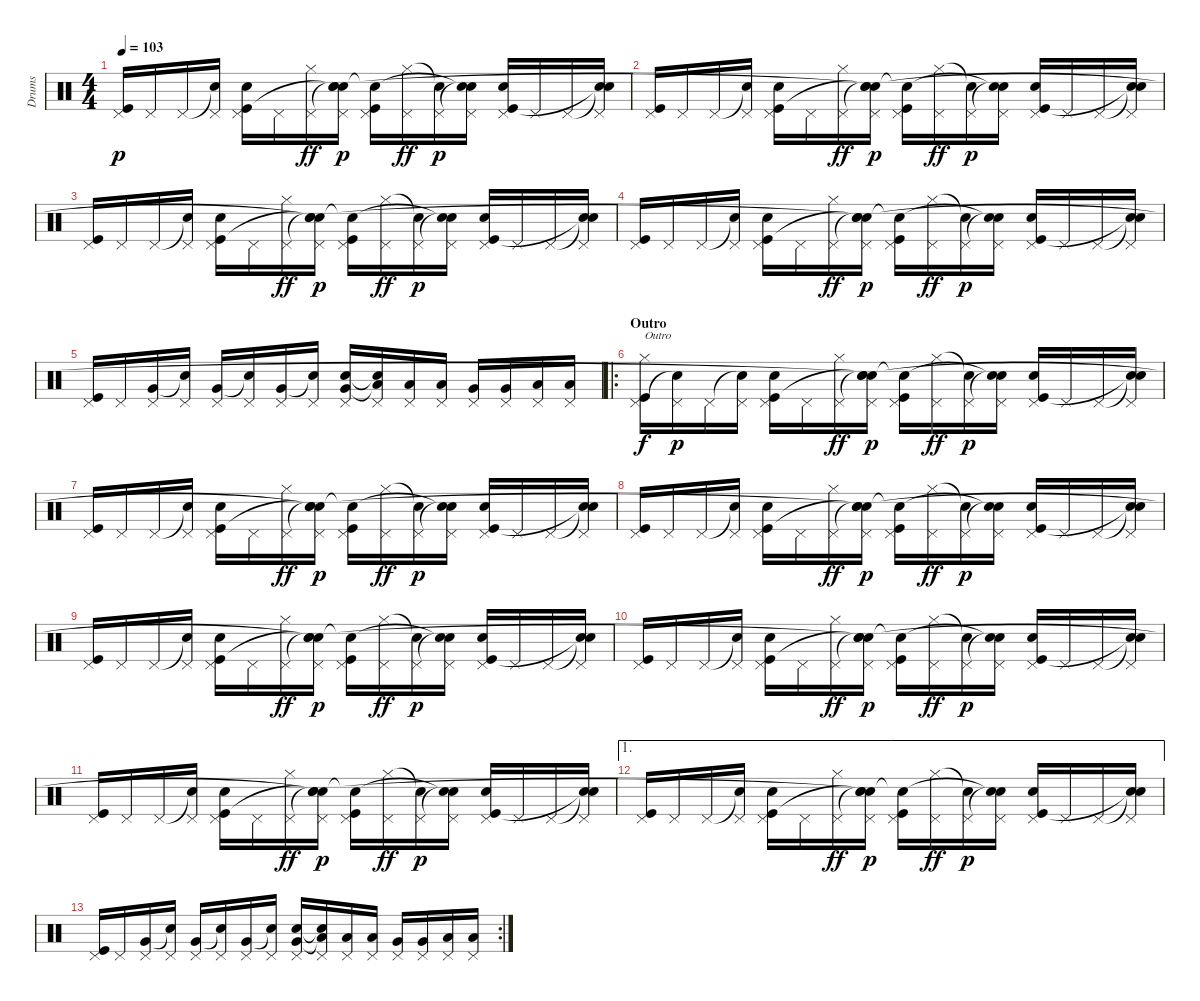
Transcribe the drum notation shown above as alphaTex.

\track ("Drums" "Drums") {instrument percussion}
\staff {score}
\articulation defaults
\ts (4 4)
\tempo 103
\clef neutral
\ks c
("Kick (hit)" "Pedal Hi-Hat (hit)").16{dy p} "Pedal Hi-Hat (hit)".16 "Pedal Hi-Hat (hit)".16 ("Electric Snare (hit)"{t} "Pedal Hi-Hat (hit)").16 ("Electric Snare (hit)" "Pedal Hi-Hat (hit)" "Kick (hit)").16 "Pedal Hi-Hat (hit)".16 ("Pedal Hi-Hat (hit)" "Hi-Hat (closed)").16{dy ff} ("Snare (hit)"{t} "Pedal Hi-Hat (hit)" "Snare (hit)"{t} "Snare (hit)"{t}).16{dy p} ("Kick (hit)" "Pedal Hi-Hat (hit)" "Snare (hit)"{t}).16 ("Pedal Hi-Hat (hit)" "Hi-Hat (closed)").16{dy ff} ("Pedal Hi-Hat (hit)" "Snare (hit)"{t}).16{dy p} ("Snare (hit)"{t} "Pedal Hi-Hat (hit)" "Snare (hit)"{t}).16 ("Electric Snare (hit)" "Pedal Hi-Hat (hit)" "Kick (hit)").16 "Pedal Hi-Hat (hit)".16 "Pedal Hi-Hat (hit)".16 ("Snare (hit)"{t} "Pedal Hi-Hat (hit)" "Snare (hit)"{t}).16 |
("Kick (hit)" "Pedal Hi-Hat (hit)").16 "Pedal Hi-Hat (hit)".16 "Pedal Hi-Hat (hit)".16 ("Electric Snare (hit)"{t} "Pedal Hi-Hat (hit)").16 ("Electric Snare (hit)" "Pedal Hi-Hat (hit)" "Kick (hit)").16 "Pedal Hi-Hat (hit)".16 ("Pedal Hi-Hat (hit)" "Hi-Hat (closed)").16{dy ff} ("Snare (hit)"{t} "Pedal Hi-Hat (hit)" "Snare (hit)"{t} "Snare (hit)"{t}).16{dy p} ("Kick (hit)" "Pedal Hi-Hat (hit)" "Snare (hit)"{t}).16 ("Pedal Hi-Hat (hit)" "Hi-Hat (closed)").16{dy ff} ("Pedal Hi-Hat (hit)" "Snare (hit)"{t}).16{dy p} ("Snare (hit)"{t} "Pedal Hi-Hat (hit)" "Snare (hit)"{t}).16 ("Electric Snare (hit)" "Pedal Hi-Hat (hit)" "Kick (hit)").16 "Pedal Hi-Hat (hit)".16 "Pedal Hi-Hat (hit)".16 ("Snare (hit)"{t} "Pedal Hi-Hat (hit)" "Snare (hit)"{t}).16 |
("Kick (hit)" "Pedal Hi-Hat (hit)").16 "Pedal Hi-Hat (hit)".16 "Pedal Hi-Hat (hit)".16 ("Electric Snare (hit)"{t} "Pedal Hi-Hat (hit)").16 ("Electric Snare (hit)" "Pedal Hi-Hat (hit)" "Kick (hit)").16 "Pedal Hi-Hat (hit)".16 ("Pedal Hi-Hat (hit)" "Hi-Hat (closed)").16{dy ff} ("Snare (hit)"{t} "Pedal Hi-Hat (hit)" "Snare (hit)"{t} "Snare (hit)"{t}).16{dy p} ("Kick (hit)" "Pedal Hi-Hat (hit)" "Snare (hit)"{t}).16 ("Pedal Hi-Hat (hit)" "Hi-Hat (closed)").16{dy ff} ("Pedal Hi-Hat (hit)" "Snare (hit)"{t}).16{dy p} ("Snare (hit)"{t} "Pedal Hi-Hat (hit)" "Snare (hit)"{t}).16 ("Electric Snare (hit)" "Pedal Hi-Hat (hit)" "Kick (hit)").16 "Pedal Hi-Hat (hit)".16 "Pedal Hi-Hat (hit)".16 ("Snare (hit)"{t} "Pedal Hi-Hat (hit)" "Snare (hit)"{t}).16 |
("Kick (hit)" "Pedal Hi-Hat (hit)").16 "Pedal Hi-Hat (hit)".16 "Pedal Hi-Hat (hit)".16 ("Electric Snare (hit)"{t} "Pedal Hi-Hat (hit)").16 ("Electric Snare (hit)" "Pedal Hi-Hat (hit)" "Kick (hit)").16 "Pedal Hi-Hat (hit)".16 ("Pedal Hi-Hat (hit)" "Hi-Hat (closed)").16{dy ff} ("Snare (hit)"{t} "Pedal Hi-Hat (hit)" "Snare (hit)"{t} "Snare (hit)"{t}).16{dy p} ("Kick (hit)" "Pedal Hi-Hat (hit)" "Snare (hit)"{t}).16 ("Pedal Hi-Hat (hit)" "Hi-Hat (closed)").16{dy ff} ("Pedal Hi-Hat (hit)" "Snare (hit)"{t}).16{dy p} ("Snare (hit)"{t} "Pedal Hi-Hat (hit)" "Snare (hit)"{t}).16 ("Electric Snare (hit)" "Pedal Hi-Hat (hit)" "Kick (hit)").16 "Pedal Hi-Hat (hit)".16 "Pedal Hi-Hat (hit)".16 ("Snare (hit)"{t} "Pedal Hi-Hat (hit)" "Snare (hit)"{t}).16 |
("Kick (hit)" "Pedal Hi-Hat (hit)").16 "Pedal Hi-Hat (hit)".16 ("Very Low Tom (hit)" "Pedal Hi-Hat (hit)").16 ("Electric Snare (hit)"{t} "Pedal Hi-Hat (hit)").16 ("Very Low Tom (hit)" "Pedal Hi-Hat (hit)").16 ("Snare (hit)"{t} "Pedal Hi-Hat (hit)").16 ("Very Low Tom (hit)" "Pedal Hi-Hat (hit)").16 ("Snare (hit)"{t} "Pedal Hi-Hat (hit)").16 ("Very Low Tom (hit)" "Pedal Hi-Hat (hit)" "Electric Snare (hit)").16 ("Low Floor Tom (hit)"{t} "Pedal Hi-Hat (hit)" "Snare (hit)"{t}).16 ("Low Floor Tom (hit)" "Pedal Hi-Hat (hit)").16 ("Low Floor Tom (hit)" "Pedal Hi-Hat (hit)").16 ("Very Low Tom (hit)" "Pedal Hi-Hat (hit)").16 ("Very Low Tom (hit)" "Pedal Hi-Hat (hit)").16 ("Low Floor Tom (hit)" "Pedal Hi-Hat (hit)").16 ("Low Floor Tom (hit)" "Pedal Hi-Hat (hit)").16 |
\ro
\section ("" "Outro")
("Kick (hit)" "Pedal Hi-Hat (hit)" "Hi-Hat (closed)").16{txt "Outro" dy f} ("Pedal Hi-Hat (hit)" "Snare (hit)"{t}).16{dy p} "Pedal Hi-Hat (hit)".16 ("Electric Snare (hit)"{t} "Pedal Hi-Hat (hit)").16 ("Electric Snare (hit)" "Pedal Hi-Hat (hit)" "Kick (hit)").16 "Pedal Hi-Hat (hit)".16 ("Pedal Hi-Hat (hit)" "Hi-Hat (closed)").16{dy ff} ("Snare (hit)"{t} "Pedal Hi-Hat (hit)" "Snare (hit)"{t} "Snare (hit)"{t}).16{dy p} ("Kick (hit)" "Pedal Hi-Hat (hit)" "Snare (hit)"{t}).16 ("Pedal Hi-Hat (hit)" "Hi-Hat (closed)").16{dy ff} ("Pedal Hi-Hat (hit)" "Snare (hit)"{t}).16{dy p} ("Snare (hit)"{t} "Pedal Hi-Hat (hit)" "Snare (hit)"{t}).16 ("Electric Snare (hit)" "Pedal Hi-Hat (hit)" "Kick (hit)").16 "Pedal Hi-Hat (hit)".16 "Pedal Hi-Hat (hit)".16 ("Snare (hit)"{t} "Pedal Hi-Hat (hit)" "Snare (hit)"{t}).16 |
("Kick (hit)" "Pedal Hi-Hat (hit)").16 "Pedal Hi-Hat (hit)".16 "Pedal Hi-Hat (hit)".16 ("Electric Snare (hit)"{t} "Pedal Hi-Hat (hit)").16 ("Electric Snare (hit)" "Pedal Hi-Hat (hit)" "Kick (hit)").16 "Pedal Hi-Hat (hit)".16 ("Pedal Hi-Hat (hit)" "Hi-Hat (closed)").16{dy ff} ("Snare (hit)"{t} "Pedal Hi-Hat (hit)" "Snare (hit)"{t} "Snare (hit)"{t}).16{dy p} ("Kick (hit)" "Pedal Hi-Hat (hit)" "Snare (hit)"{t}).16 ("Pedal Hi-Hat (hit)" "Hi-Hat (closed)").16{dy ff} ("Pedal Hi-Hat (hit)" "Snare (hit)"{t}).16{dy p} ("Snare (hit)"{t} "Pedal Hi-Hat (hit)" "Snare (hit)"{t}).16 ("Electric Snare (hit)" "Pedal Hi-Hat (hit)" "Kick (hit)").16 "Pedal Hi-Hat (hit)".16 "Pedal Hi-Hat (hit)".16 ("Snare (hit)"{t} "Pedal Hi-Hat (hit)" "Snare (hit)"{t}).16 |
("Kick (hit)" "Pedal Hi-Hat (hit)").16 "Pedal Hi-Hat (hit)".16 "Pedal Hi-Hat (hit)".16 ("Electric Snare (hit)"{t} "Pedal Hi-Hat (hit)").16 ("Electric Snare (hit)" "Pedal Hi-Hat (hit)" "Kick (hit)").16 "Pedal Hi-Hat (hit)".16 ("Pedal Hi-Hat (hit)" "Hi-Hat (closed)").16{dy ff} ("Snare (hit)"{t} "Pedal Hi-Hat (hit)" "Snare (hit)"{t} "Snare (hit)"{t}).16{dy p} ("Kick (hit)" "Pedal Hi-Hat (hit)" "Snare (hit)"{t}).16 ("Pedal Hi-Hat (hit)" "Hi-Hat (closed)").16{dy ff} ("Pedal Hi-Hat (hit)" "Snare (hit)"{t}).16{dy p} ("Snare (hit)"{t} "Pedal Hi-Hat (hit)" "Snare (hit)"{t}).16 ("Electric Snare (hit)" "Pedal Hi-Hat (hit)" "Kick (hit)").16 "Pedal Hi-Hat (hit)".16 "Pedal Hi-Hat (hit)".16 ("Snare (hit)"{t} "Pedal Hi-Hat (hit)" "Snare (hit)"{t}).16 |
("Kick (hit)" "Pedal Hi-Hat (hit)").16 "Pedal Hi-Hat (hit)".16 "Pedal Hi-Hat (hit)".16 ("Electric Snare (hit)"{t} "Pedal Hi-Hat (hit)").16 ("Electric Snare (hit)" "Pedal Hi-Hat (hit)" "Kick (hit)").16 "Pedal Hi-Hat (hit)".16 ("Pedal Hi-Hat (hit)" "Hi-Hat (closed)").16{dy ff} ("Snare (hit)"{t} "Pedal Hi-Hat (hit)" "Snare (hit)"{t} "Snare (hit)"{t}).16{dy p} ("Kick (hit)" "Pedal Hi-Hat (hit)" "Snare (hit)"{t}).16 ("Pedal Hi-Hat (hit)" "Hi-Hat (closed)").16{dy ff} ("Pedal Hi-Hat (hit)" "Snare (hit)"{t}).16{dy p} ("Snare (hit)"{t} "Pedal Hi-Hat (hit)" "Snare (hit)"{t}).16 ("Electric Snare (hit)" "Pedal Hi-Hat (hit)" "Kick (hit)").16 "Pedal Hi-Hat (hit)".16 "Pedal Hi-Hat (hit)".16 ("Snare (hit)"{t} "Pedal Hi-Hat (hit)" "Snare (hit)"{t}).16 |
("Kick (hit)" "Pedal Hi-Hat (hit)").16 "Pedal Hi-Hat (hit)".16 "Pedal Hi-Hat (hit)".16 ("Electric Snare (hit)"{t} "Pedal Hi-Hat (hit)").16 ("Electric Snare (hit)" "Pedal Hi-Hat (hit)" "Kick (hit)").16 "Pedal Hi-Hat (hit)".16 ("Pedal Hi-Hat (hit)" "Hi-Hat (closed)").16{dy ff} ("Snare (hit)"{t} "Pedal Hi-Hat (hit)" "Snare (hit)"{t} "Snare (hit)"{t}).16{dy p} ("Kick (hit)" "Pedal Hi-Hat (hit)" "Snare (hit)"{t}).16 ("Pedal Hi-Hat (hit)" "Hi-Hat (closed)").16{dy ff} ("Pedal Hi-Hat (hit)" "Snare (hit)"{t}).16{dy p} ("Snare (hit)"{t} "Pedal Hi-Hat (hit)" "Snare (hit)"{t}).16 ("Electric Snare (hit)" "Pedal Hi-Hat (hit)" "Kick (hit)").16 "Pedal Hi-Hat (hit)".16 "Pedal Hi-Hat (hit)".16 ("Snare (hit)"{t} "Pedal Hi-Hat (hit)" "Snare (hit)"{t}).16 |
("Kick (hit)" "Pedal Hi-Hat (hit)").16 "Pedal Hi-Hat (hit)".16 "Pedal Hi-Hat (hit)".16 ("Electric Snare (hit)"{t} "Pedal Hi-Hat (hit)").16 ("Electric Snare (hit)" "Pedal Hi-Hat (hit)" "Kick (hit)").16 "Pedal Hi-Hat (hit)".16 ("Pedal Hi-Hat (hit)" "Hi-Hat (closed)").16{dy ff} ("Snare (hit)"{t} "Pedal Hi-Hat (hit)" "Snare (hit)"{t} "Snare (hit)"{t}).16{dy p} ("Kick (hit)" "Pedal Hi-Hat (hit)" "Snare (hit)"{t}).16 ("Pedal Hi-Hat (hit)" "Hi-Hat (closed)").16{dy ff} ("Pedal Hi-Hat (hit)" "Snare (hit)"{t}).16{dy p} ("Snare (hit)"{t} "Pedal Hi-Hat (hit)" "Snare (hit)"{t}).16 ("Electric Snare (hit)" "Pedal Hi-Hat (hit)" "Kick (hit)").16 "Pedal Hi-Hat (hit)".16 "Pedal Hi-Hat (hit)".16 ("Snare (hit)"{t} "Pedal Hi-Hat (hit)" "Snare (hit)"{t}).16 |
\ae 1
("Kick (hit)" "Pedal Hi-Hat (hit)").16 "Pedal Hi-Hat (hit)".16 "Pedal Hi-Hat (hit)".16 ("Electric Snare (hit)"{t} "Pedal Hi-Hat (hit)").16 ("Electric Snare (hit)" "Pedal Hi-Hat (hit)" "Kick (hit)").16 "Pedal Hi-Hat (hit)".16 ("Pedal Hi-Hat (hit)" "Hi-Hat (closed)").16{dy ff} ("Snare (hit)"{t} "Pedal Hi-Hat (hit)" "Snare (hit)"{t} "Snare (hit)"{t}).16{dy p} ("Kick (hit)" "Pedal Hi-Hat (hit)" "Snare (hit)"{t}).16 ("Pedal Hi-Hat (hit)" "Hi-Hat (closed)").16{dy ff} ("Pedal Hi-Hat (hit)" "Snare (hit)"{t}).16{dy p} ("Snare (hit)"{t} "Pedal Hi-Hat (hit)" "Snare (hit)"{t}).16 ("Electric Snare (hit)" "Pedal Hi-Hat (hit)" "Kick (hit)").16 "Pedal Hi-Hat (hit)".16 "Pedal Hi-Hat (hit)".16 ("Snare (hit)"{t} "Pedal Hi-Hat (hit)" "Snare (hit)"{t}).16 |
\rc 2
("Kick (hit)" "Pedal Hi-Hat (hit)").16 "Pedal Hi-Hat (hit)".16 ("Very Low Tom (hit)" "Pedal Hi-Hat (hit)").16 ("Electric Snare (hit)"{t} "Pedal Hi-Hat (hit)").16 ("Very Low Tom (hit)" "Pedal Hi-Hat (hit)").16 ("Snare (hit)"{t} "Pedal Hi-Hat (hit)").16 ("Very Low Tom (hit)" "Pedal Hi-Hat (hit)").16 ("Snare (hit)"{t} "Pedal Hi-Hat (hit)").16 ("Very Low Tom (hit)" "Pedal Hi-Hat (hit)" "Electric Snare (hit)").16 ("Low Floor Tom (hit)"{t} "Pedal Hi-Hat (hit)" "Snare (hit)"{t}).16 ("Low Floor Tom (hit)" "Pedal Hi-Hat (hit)").16 ("Low Floor Tom (hit)" "Pedal Hi-Hat (hit)").16 ("Very Low Tom (hit)" "Pedal Hi-Hat (hit)").16 ("Very Low Tom (hit)" "Pedal Hi-Hat (hit)").16 ("Low Floor Tom (hit)" "Pedal Hi-Hat (hit)").16 ("Low Floor Tom (hit)" "Pedal Hi-Hat (hit)").16
